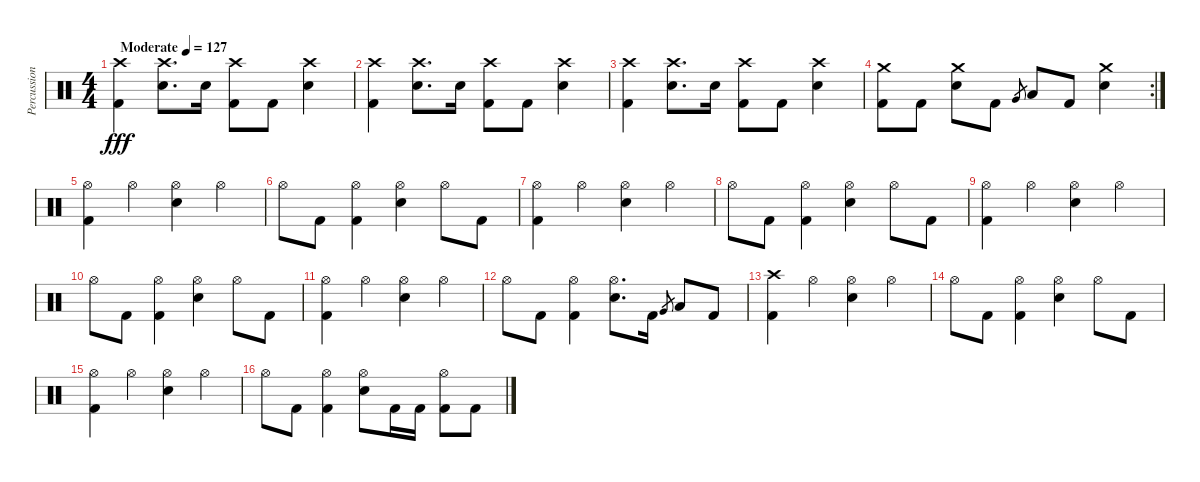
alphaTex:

\track ("Percussion" "Percussion") {instrument percussion}
\staff {score}
\articulation defaults
\ts (4 4)
\tempo (127 "Moderate")
\clef neutral
\ks c
("Crash high (hit)" "Kick (hit) 2").4{dy fff} ("Crash high (hit)" "Snare (hit) 2").8{d} "Snare (hit) 2".16 ("Crash high (hit)" "Kick (hit) 2").8 "Kick (hit) 2".8 ("Crash high (hit)" "Snare (hit) 2").4 |
("Crash high (hit)" "Kick (hit) 2").4 ("Crash high (hit)" "Snare (hit) 2").8{d} "Snare (hit) 2".16 ("Crash high (hit)" "Kick (hit) 2").8 "Kick (hit) 2".8 ("Crash high (hit)" "Snare (hit) 2").4 |
("Crash high (hit)" "Kick (hit) 2").4 ("Crash high (hit)" "Snare (hit) 2").8{d} "Snare (hit) 2".16 ("Crash high (hit)" "Kick (hit) 2").8 "Kick (hit) 2".8 ("Crash high (hit)" "Snare (hit) 2").4 |
\rc 2
("Crash medium (hit)" "Kick (hit) 2").8 "Kick (hit) 2".8 ("Crash medium (hit)" "Snare (hit) 2").8 "Kick (hit) 2".8 "Very Low Tom (hit)".8{gr} "Low Tom (hit)".8 "Kick (hit) 2".8 ("Crash medium (hit)" "Snare (hit) 2").4 |
("Hi-Hat (open)" "Kick (hit) 2").4 "Hi-Hat (open)".4 ("Hi-Hat (open)" "Snare (hit) 2").4 "Hi-Hat (open)".4 |
"Hi-Hat (open)".8 "Kick (hit) 2".8 ("Hi-Hat (open)" "Kick (hit) 2").4 ("Hi-Hat (open)" "Snare (hit) 2").4 "Hi-Hat (open)".8 "Kick (hit) 2".8 |
("Hi-Hat (open)" "Kick (hit) 2").4 "Hi-Hat (open)".4 ("Hi-Hat (open)" "Snare (hit) 2").4 "Hi-Hat (open)".4 |
"Hi-Hat (open)".8 "Kick (hit) 2".8 ("Hi-Hat (open)" "Kick (hit) 2").4 ("Hi-Hat (open)" "Snare (hit) 2").4 "Hi-Hat (open)".8 "Kick (hit) 2".8 |
("Hi-Hat (open)" "Kick (hit) 2").4 "Hi-Hat (open)".4 ("Hi-Hat (open)" "Snare (hit) 2").4 "Hi-Hat (open)".4 |
"Hi-Hat (open)".8 "Kick (hit) 2".8 ("Hi-Hat (open)" "Kick (hit) 2").4 ("Hi-Hat (open)" "Snare (hit) 2").4 "Hi-Hat (open)".8 "Kick (hit) 2".8 |
("Hi-Hat (open)" "Kick (hit) 2").4 "Hi-Hat (open)".4 ("Hi-Hat (open)" "Snare (hit) 2").4 "Hi-Hat (open)".4 |
"Hi-Hat (open)".8 "Kick (hit) 2".8 ("Hi-Hat (open)" "Kick (hit) 2").4 ("Hi-Hat (open)" "Snare (hit) 2").8{d} "Kick (hit) 2".16 "Very Low Tom (hit)".8{gr} "Low Tom (hit)".8 "Kick (hit) 2".8 |
("Crash high (hit)" "Kick (hit) 2").4 "Hi-Hat (open)".4 ("Hi-Hat (open)" "Snare (hit) 2").4 "Hi-Hat (open)".4 |
"Hi-Hat (open)".8 "Kick (hit) 2".8 ("Hi-Hat (open)" "Kick (hit) 2").4 ("Hi-Hat (open)" "Snare (hit) 2").4 "Hi-Hat (open)".8 "Kick (hit) 2".8 |
("Hi-Hat (open)" "Kick (hit) 2").4 "Hi-Hat (open)".4 ("Hi-Hat (open)" "Snare (hit) 2").4 "Hi-Hat (open)".4 |
"Hi-Hat (open)".8 "Kick (hit) 2".8 ("Hi-Hat (open)" "Kick (hit) 2").4 ("Hi-Hat (open)" "Snare (hit) 2").8 "Kick (hit) 2".16 "Kick (hit) 2".16 ("Hi-Hat (open)" "Kick (hit) 2").8 "Kick (hit) 2".8
